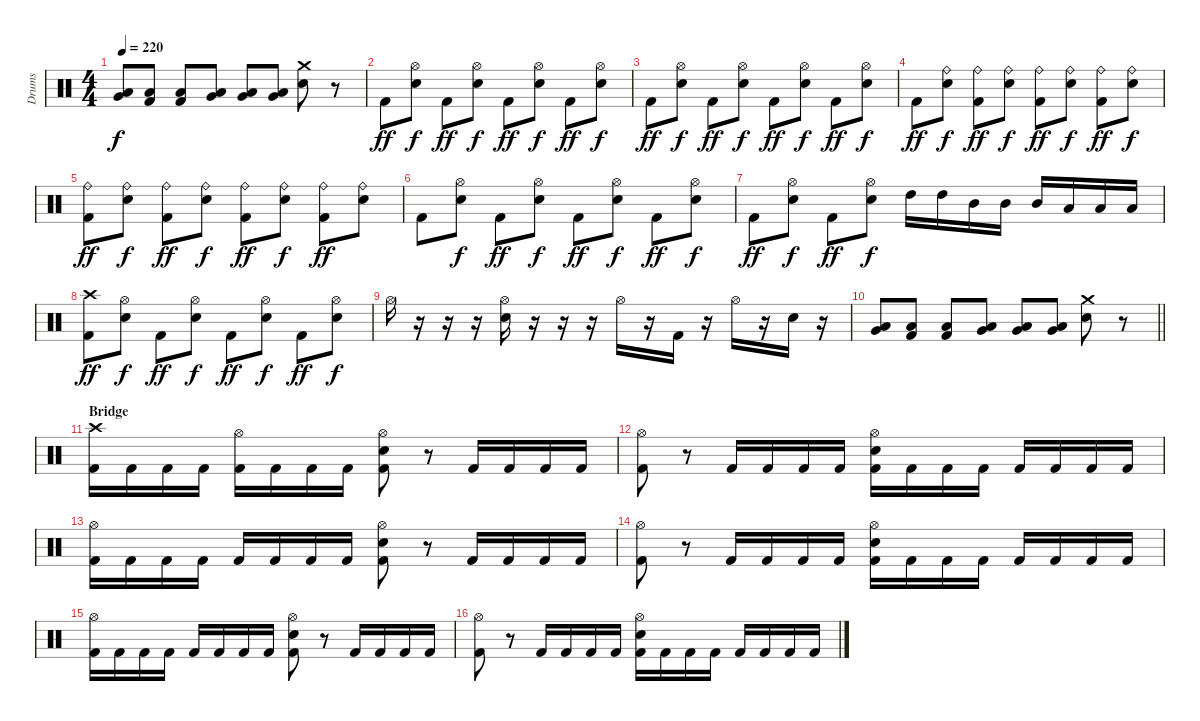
\track ("Drums" "Drums") {instrument percussion}
\staff {score}
\articulation defaults
\ts (4 4)
\tempo 220
\clef neutral
\ks c
("Low Tom (hit)" "Very Low Tom (hit)").8{dy f} ("Low Floor Tom (hit)" "Kick (hit) 2").8 ("Low Floor Tom (hit)" "Kick (hit) 2").8 ("Very Low Tom (hit)" "Low Floor Tom (hit)").8 ("Very Low Tom (hit)" "Low Floor Tom (hit)").8 ("Very Low Tom (hit)" "Low Floor Tom (hit)").8 ("Crash medium (hit)" "Electric Snare (hit)").8 r.8 |
"Kick (hit) 2".8{dy ff} ("Hi-Hat (open)" "Electric Snare (hit)").8{dy f} "Kick (hit) 2".8{dy ff} ("Hi-Hat (open)" "Electric Snare (hit)").8{dy f} "Kick (hit) 2".8{dy ff} ("Hi-Hat (open)" "Electric Snare (hit)").8{dy f} "Kick (hit) 2".8{dy ff} ("Hi-Hat (open)" "Electric Snare (hit)").8{dy f} |
"Kick (hit) 2".8{dy ff} ("Hi-Hat (open)" "Electric Snare (hit)").8{dy f} "Kick (hit) 2".8{dy ff} ("Hi-Hat (open)" "Electric Snare (hit)").8{dy f} "Kick (hit) 2".8{dy ff} ("Hi-Hat (open)" "Electric Snare (hit)").8{dy f} "Kick (hit) 2".8{dy ff} ("Hi-Hat (open)" "Electric Snare (hit)").8{dy f} |
"Kick (hit) 2".8{dy ff} ("Ride (bell)" "Electric Snare (hit)").8{dy f} ("Ride (bell)" "Kick (hit) 2").8{dy ff} ("Ride (bell)" "Electric Snare (hit)").8{dy f} ("Ride (bell)" "Kick (hit) 2").8{dy ff} ("Ride (bell)" "Electric Snare (hit)").8{dy f} ("Ride (bell)" "Kick (hit) 2").8{dy ff} ("Ride (bell)" "Electric Snare (hit)").8{dy f} |
("Ride (bell)" "Kick (hit) 2").8{dy ff} ("Ride (bell)" "Electric Snare (hit)").8{dy f} ("Ride (bell)" "Kick (hit) 2").8{dy ff} ("Ride (bell)" "Electric Snare (hit)").8{dy f} ("Ride (bell)" "Kick (hit) 2").8{dy ff} ("Ride (bell)" "Electric Snare (hit)").8{dy f} ("Ride (bell)" "Kick (hit) 2").8{dy ff} ("Ride (bell)" "Electric Snare (hit)").8 |
"Kick (hit) 2".8 ("Hi-Hat (open)" "Electric Snare (hit)").8{dy f} "Kick (hit) 2".8{dy ff} ("Hi-Hat (open)" "Electric Snare (hit)").8{dy f} "Kick (hit) 2".8{dy ff} ("Hi-Hat (open)" "Electric Snare (hit)").8{dy f} "Kick (hit) 2".8{dy ff} ("Hi-Hat (open)" "Electric Snare (hit)").8{dy f} |
"Kick (hit) 2".8{dy ff} ("Hi-Hat (open)" "Electric Snare (hit)").8{dy f} "Kick (hit) 2".8{dy ff} ("Hi-Hat (open)" "Electric Snare (hit)").8{dy f} "High Tom (hit)".16 "High Tom (hit)".16 "Mid Tom (hit)".16 "Mid Tom (hit)".16 "Mid Tom (hit)".16 "Low Tom (hit)".16 "Low Tom (hit)".16 "Low Tom (hit)".16 |
("Crash high (hit)" "Kick (hit) 2").8{dy ff} ("Hi-Hat (open)" "Electric Snare (hit)").8{dy f} "Kick (hit) 2".8{dy ff} ("Hi-Hat (open)" "Electric Snare (hit)").8{dy f} "Kick (hit) 2".8{dy ff} ("Hi-Hat (open)" "Electric Snare (hit)").8{dy f} "Kick (hit) 2".8{dy ff} ("Hi-Hat (open)" "Electric Snare (hit)").8{dy f} |
"Hi-Hat (open)".16 r.16 r.16 r.16 ("Hi-Hat (open)" "Electric Snare (hit)").16 r.16 r.16 r.16 "Hi-Hat (open)".16 r.16 "Kick (hit) 2".16 r.16 "Hi-Hat (open)".16 r.16 "Electric Snare (hit)".16 r.16 |
\barLineRight lightlight
("Low Tom (hit)" "Very Low Tom (hit)").8 ("Low Floor Tom (hit)" "Kick (hit) 2").8 ("Low Floor Tom (hit)" "Kick (hit) 2").8 ("Very Low Tom (hit)" "Low Floor Tom (hit)").8 ("Very Low Tom (hit)" "Low Floor Tom (hit)").8 ("Very Low Tom (hit)" "Low Floor Tom (hit)").8 ("Crash medium (hit)" "Electric Snare (hit)").8 r.8 |
\section ("" "Bridge")
("Crash high (hit)" "Kick (hit) 2").16 "Kick (hit) 2".16 "Kick (hit) 2".16 "Kick (hit) 2".16 ("Hi-Hat (open)" "Kick (hit) 2").16 "Kick (hit) 2".16 "Kick (hit) 2".16 "Kick (hit) 2".16 ("Hi-Hat (open)" "Electric Snare (hit)" "Kick (hit) 2").8 r.8 "Kick (hit) 2".16 "Kick (hit) 2".16 "Kick (hit) 2".16 "Kick (hit) 2".16 |
("Hi-Hat (open)" "Kick (hit) 2").8 r.8 "Kick (hit) 2".16 "Kick (hit) 2".16 "Kick (hit) 2".16 "Kick (hit) 2".16 ("Hi-Hat (open)" "Electric Snare (hit)" "Kick (hit) 2").16 "Kick (hit) 2".16 "Kick (hit) 2".16 "Kick (hit) 2".16 "Kick (hit) 2".16 "Kick (hit) 2".16 "Kick (hit) 2".16 "Kick (hit) 2".16 |
("Hi-Hat (open)" "Kick (hit) 2").16 "Kick (hit) 2".16 "Kick (hit) 2".16 "Kick (hit) 2".16 "Kick (hit) 2".16 "Kick (hit) 2".16 "Kick (hit) 2".16 "Kick (hit) 2".16 ("Hi-Hat (open)" "Electric Snare (hit)" "Kick (hit) 2").8 r.8 "Kick (hit) 2".16 "Kick (hit) 2".16 "Kick (hit) 2".16 "Kick (hit) 2".16 |
("Hi-Hat (open)" "Kick (hit) 2").8 r.8 "Kick (hit) 2".16 "Kick (hit) 2".16 "Kick (hit) 2".16 "Kick (hit) 2".16 ("Hi-Hat (open)" "Electric Snare (hit)" "Kick (hit) 2").16 "Kick (hit) 2".16 "Kick (hit) 2".16 "Kick (hit) 2".16 "Kick (hit) 2".16 "Kick (hit) 2".16 "Kick (hit) 2".16 "Kick (hit) 2".16 |
("Hi-Hat (open)" "Kick (hit) 2").16 "Kick (hit) 2".16 "Kick (hit) 2".16 "Kick (hit) 2".16 "Kick (hit) 2".16 "Kick (hit) 2".16 "Kick (hit) 2".16 "Kick (hit) 2".16 ("Hi-Hat (open)" "Electric Snare (hit)" "Kick (hit) 2").8 r.8 "Kick (hit) 2".16 "Kick (hit) 2".16 "Kick (hit) 2".16 "Kick (hit) 2".16 |
("Hi-Hat (open)" "Kick (hit) 2").8 r.8 "Kick (hit) 2".16 "Kick (hit) 2".16 "Kick (hit) 2".16 "Kick (hit) 2".16 ("Hi-Hat (open)" "Electric Snare (hit)" "Kick (hit) 2").16 "Kick (hit) 2".16 "Kick (hit) 2".16 "Kick (hit) 2".16 "Kick (hit) 2".16 "Kick (hit) 2".16 "Kick (hit) 2".16 "Kick (hit) 2".16
